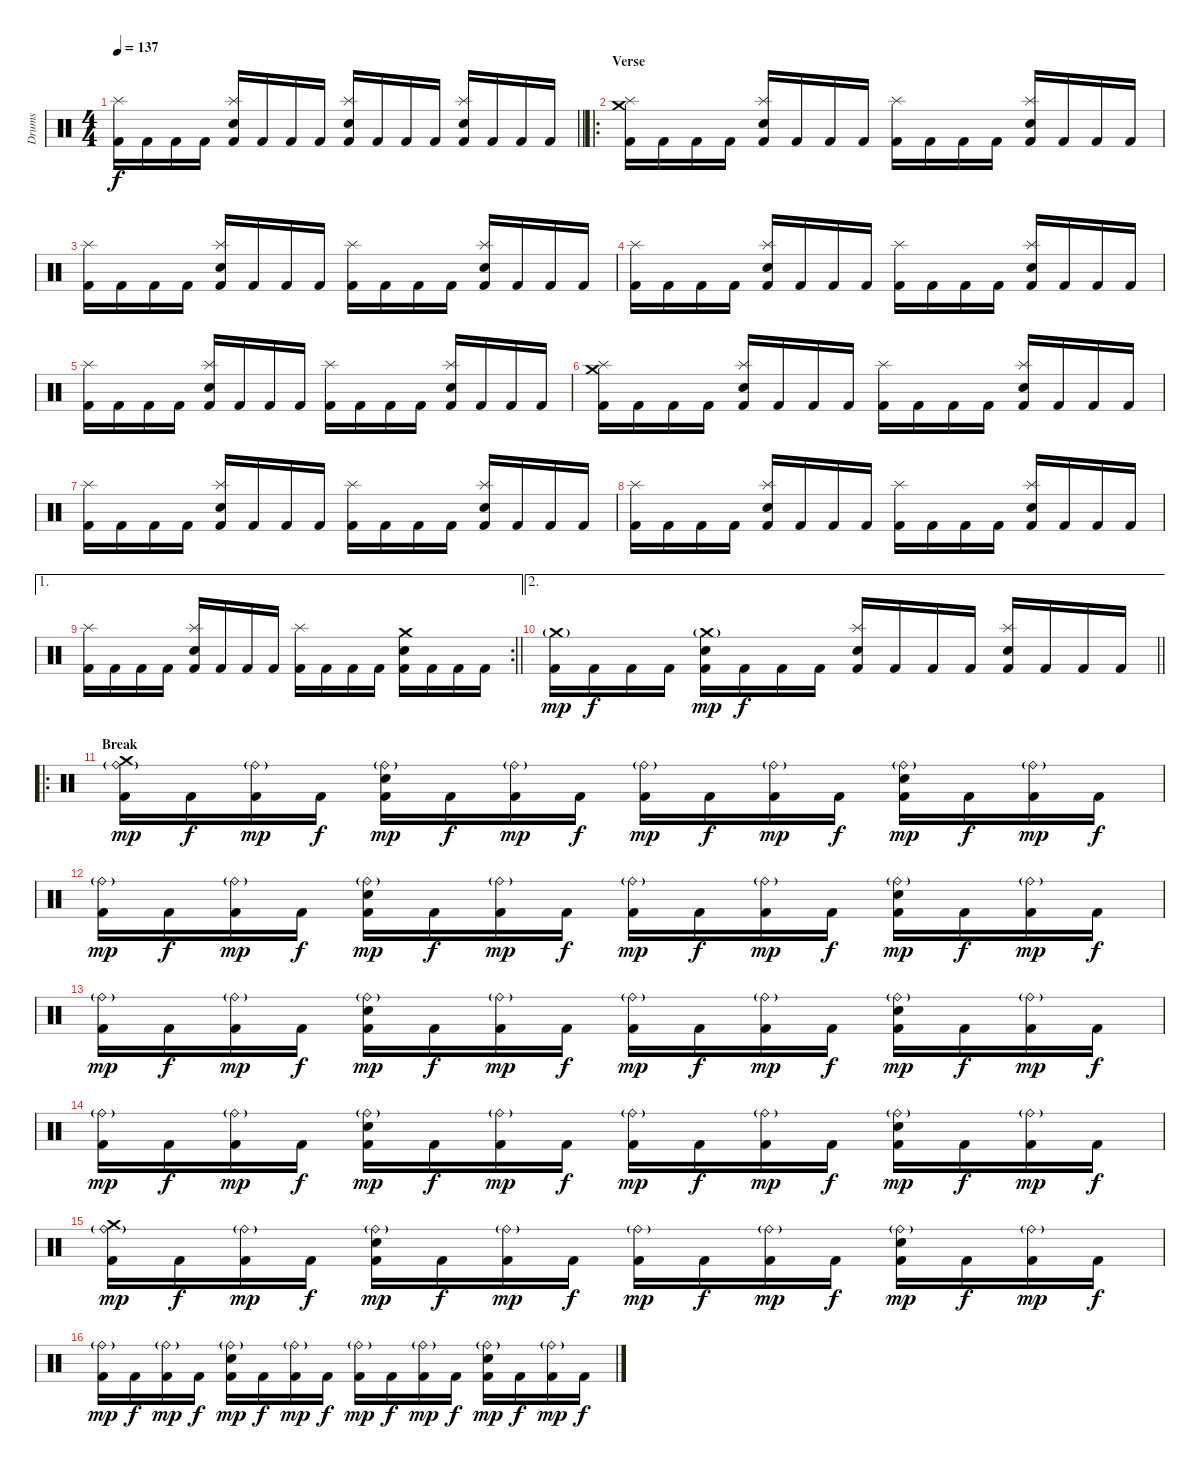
\track ("Drums" "Drums") {instrument percussion}
\staff {score}
\articulation defaults
\ts (4 4)
\tempo 137
\clef neutral
\barLineRight lightlight
\ks c
("Kick (hit) 2" "Splash (hit)").16{dy f} "Kick (hit) 2".16 "Kick (hit) 2".16 "Kick (hit) 2".16 ("Kick (hit) 2" "Snare (hit) 2" "Splash (hit)").16 "Kick (hit) 2".16 "Kick (hit) 2".16 "Kick (hit) 2".16 ("Kick (hit) 2" "Snare (hit) 2" "Splash (hit)").16 "Kick (hit) 2".16 "Kick (hit) 2".16 "Kick (hit) 2".16 ("Kick (hit) 2" "Snare (hit) 2" "Splash (hit)").16 "Kick (hit) 2".16 "Kick (hit) 2".16 "Kick (hit) 2".16 |
\ro
\section ("" "Verse")
("Kick (hit) 2" "Splash (hit)" "Crash medium (hit)").16 "Kick (hit) 2".16 "Kick (hit) 2".16 "Kick (hit) 2".16 ("Kick (hit) 2" "Snare (hit) 2" "Splash (hit)").16 "Kick (hit) 2".16 "Kick (hit) 2".16 "Kick (hit) 2".16 ("Kick (hit) 2" "Splash (hit)").16 "Kick (hit) 2".16 "Kick (hit) 2".16 "Kick (hit) 2".16 ("Kick (hit) 2" "Snare (hit) 2" "Splash (hit)").16 "Kick (hit) 2".16 "Kick (hit) 2".16 "Kick (hit) 2".16 |
("Kick (hit) 2" "Splash (hit)").16 "Kick (hit) 2".16 "Kick (hit) 2".16 "Kick (hit) 2".16 ("Kick (hit) 2" "Snare (hit) 2" "Splash (hit)").16 "Kick (hit) 2".16 "Kick (hit) 2".16 "Kick (hit) 2".16 ("Kick (hit) 2" "Splash (hit)").16 "Kick (hit) 2".16 "Kick (hit) 2".16 "Kick (hit) 2".16 ("Kick (hit) 2" "Snare (hit) 2" "Splash (hit)").16 "Kick (hit) 2".16 "Kick (hit) 2".16 "Kick (hit) 2".16 |
("Kick (hit) 2" "Splash (hit)").16 "Kick (hit) 2".16 "Kick (hit) 2".16 "Kick (hit) 2".16 ("Kick (hit) 2" "Snare (hit) 2" "Splash (hit)").16 "Kick (hit) 2".16 "Kick (hit) 2".16 "Kick (hit) 2".16 ("Kick (hit) 2" "Splash (hit)").16 "Kick (hit) 2".16 "Kick (hit) 2".16 "Kick (hit) 2".16 ("Kick (hit) 2" "Snare (hit) 2" "Splash (hit)").16 "Kick (hit) 2".16 "Kick (hit) 2".16 "Kick (hit) 2".16 |
("Kick (hit) 2" "Splash (hit)").16 "Kick (hit) 2".16 "Kick (hit) 2".16 "Kick (hit) 2".16 ("Kick (hit) 2" "Snare (hit) 2" "Splash (hit)").16 "Kick (hit) 2".16 "Kick (hit) 2".16 "Kick (hit) 2".16 ("Kick (hit) 2" "Splash (hit)").16 "Kick (hit) 2".16 "Kick (hit) 2".16 "Kick (hit) 2".16 ("Kick (hit) 2" "Snare (hit) 2" "Splash (hit)").16 "Kick (hit) 2".16 "Kick (hit) 2".16 "Kick (hit) 2".16 |
("Kick (hit) 2" "Splash (hit)" "Crash medium (hit)").16 "Kick (hit) 2".16 "Kick (hit) 2".16 "Kick (hit) 2".16 ("Kick (hit) 2" "Snare (hit) 2" "Splash (hit)").16 "Kick (hit) 2".16 "Kick (hit) 2".16 "Kick (hit) 2".16 ("Kick (hit) 2" "Splash (hit)").16 "Kick (hit) 2".16 "Kick (hit) 2".16 "Kick (hit) 2".16 ("Kick (hit) 2" "Snare (hit) 2" "Splash (hit)").16 "Kick (hit) 2".16 "Kick (hit) 2".16 "Kick (hit) 2".16 |
("Kick (hit) 2" "Splash (hit)").16 "Kick (hit) 2".16 "Kick (hit) 2".16 "Kick (hit) 2".16 ("Kick (hit) 2" "Snare (hit) 2" "Splash (hit)").16 "Kick (hit) 2".16 "Kick (hit) 2".16 "Kick (hit) 2".16 ("Kick (hit) 2" "Splash (hit)").16 "Kick (hit) 2".16 "Kick (hit) 2".16 "Kick (hit) 2".16 ("Kick (hit) 2" "Snare (hit) 2" "Splash (hit)").16 "Kick (hit) 2".16 "Kick (hit) 2".16 "Kick (hit) 2".16 |
("Kick (hit) 2" "Splash (hit)").16 "Kick (hit) 2".16 "Kick (hit) 2".16 "Kick (hit) 2".16 ("Kick (hit) 2" "Snare (hit) 2" "Splash (hit)").16 "Kick (hit) 2".16 "Kick (hit) 2".16 "Kick (hit) 2".16 ("Kick (hit) 2" "Splash (hit)").16 "Kick (hit) 2".16 "Kick (hit) 2".16 "Kick (hit) 2".16 ("Kick (hit) 2" "Snare (hit) 2" "Splash (hit)").16 "Kick (hit) 2".16 "Kick (hit) 2".16 "Kick (hit) 2".16 |
\ae 1
\rc 2
\barLineRight lightlight
("Kick (hit) 2" "Splash (hit)").16 "Kick (hit) 2".16 "Kick (hit) 2".16 "Kick (hit) 2".16 ("Kick (hit) 2" "Snare (hit) 2" "Splash (hit)").16 "Kick (hit) 2".16 "Kick (hit) 2".16 "Kick (hit) 2".16 ("Kick (hit) 2" "Splash (hit)").16 "Kick (hit) 2".16 "Kick (hit) 2".16 "Kick (hit) 2".16 ("Kick (hit) 2" "Snare (hit) 2" "Crash medium (hit)").16 "Kick (hit) 2".16 "Kick (hit) 2".16 "Kick (hit) 2".16 |
\ae 2
\barLineRight lightlight
("Kick (hit) 2" "Crash medium (hit)"{g}).16{dy mp} "Kick (hit) 2".16{dy f} "Kick (hit) 2".16 "Kick (hit) 2".16 ("Kick (hit) 2" "Snare (hit) 2" "Crash medium (hit)"{g}).16{dy mp} "Kick (hit) 2".16{dy f} "Kick (hit) 2".16 "Kick (hit) 2".16 ("Kick (hit) 2" "Snare (hit) 2" "Splash (hit)").16 "Kick (hit) 2".16 "Kick (hit) 2".16 "Kick (hit) 2".16 ("Kick (hit) 2" "Snare (hit) 2" "Splash (hit)").16 "Kick (hit) 2".16 "Kick (hit) 2".16 "Kick (hit) 2".16 |
\ro
\section ("" "Break")
("Kick (hit) 2" "Ride (bell)"{g} "Crash medium (hit)").16{dy mp} "Kick (hit) 2".16{dy f} ("Kick (hit) 2" "Ride (bell)"{g}).16{dy mp} "Kick (hit) 2".16{dy f} ("Kick (hit) 2" "Snare (hit) 2" "Ride (bell)"{g}).16{dy mp} "Kick (hit) 2".16{dy f} ("Kick (hit) 2" "Ride (bell)"{g}).16{dy mp} "Kick (hit) 2".16{dy f} ("Kick (hit) 2" "Ride (bell)"{g}).16{dy mp} "Kick (hit) 2".16{dy f} ("Kick (hit) 2" "Ride (bell)"{g}).16{dy mp} "Kick (hit) 2".16{dy f} ("Kick (hit) 2" "Snare (hit) 2" "Ride (bell)"{g}).16{dy mp} "Kick (hit) 2".16{dy f} ("Kick (hit) 2" "Ride (bell)"{g}).16{dy mp} "Kick (hit) 2".16{dy f} |
("Kick (hit) 2" "Ride (bell)"{g}).16{dy mp} "Kick (hit) 2".16{dy f} ("Kick (hit) 2" "Ride (bell)"{g}).16{dy mp} "Kick (hit) 2".16{dy f} ("Kick (hit) 2" "Snare (hit) 2" "Ride (bell)"{g}).16{dy mp} "Kick (hit) 2".16{dy f} ("Kick (hit) 2" "Ride (bell)"{g}).16{dy mp} "Kick (hit) 2".16{dy f} ("Kick (hit) 2" "Ride (bell)"{g}).16{dy mp} "Kick (hit) 2".16{dy f} ("Kick (hit) 2" "Ride (bell)"{g}).16{dy mp} "Kick (hit) 2".16{dy f} ("Kick (hit) 2" "Snare (hit) 2" "Ride (bell)"{g}).16{dy mp} "Kick (hit) 2".16{dy f} ("Kick (hit) 2" "Ride (bell)"{g}).16{dy mp} "Kick (hit) 2".16{dy f} |
("Kick (hit) 2" "Ride (bell)"{g}).16{dy mp} "Kick (hit) 2".16{dy f} ("Kick (hit) 2" "Ride (bell)"{g}).16{dy mp} "Kick (hit) 2".16{dy f} ("Kick (hit) 2" "Snare (hit) 2" "Ride (bell)"{g}).16{dy mp} "Kick (hit) 2".16{dy f} ("Kick (hit) 2" "Ride (bell)"{g}).16{dy mp} "Kick (hit) 2".16{dy f} ("Kick (hit) 2" "Ride (bell)"{g}).16{dy mp} "Kick (hit) 2".16{dy f} ("Kick (hit) 2" "Ride (bell)"{g}).16{dy mp} "Kick (hit) 2".16{dy f} ("Kick (hit) 2" "Snare (hit) 2" "Ride (bell)"{g}).16{dy mp} "Kick (hit) 2".16{dy f} ("Kick (hit) 2" "Ride (bell)"{g}).16{dy mp} "Kick (hit) 2".16{dy f} |
("Kick (hit) 2" "Ride (bell)"{g}).16{dy mp} "Kick (hit) 2".16{dy f} ("Kick (hit) 2" "Ride (bell)"{g}).16{dy mp} "Kick (hit) 2".16{dy f} ("Kick (hit) 2" "Snare (hit) 2" "Ride (bell)"{g}).16{dy mp} "Kick (hit) 2".16{dy f} ("Kick (hit) 2" "Ride (bell)"{g}).16{dy mp} "Kick (hit) 2".16{dy f} ("Kick (hit) 2" "Ride (bell)"{g}).16{dy mp} "Kick (hit) 2".16{dy f} ("Kick (hit) 2" "Ride (bell)"{g}).16{dy mp} "Kick (hit) 2".16{dy f} ("Kick (hit) 2" "Snare (hit) 2" "Ride (bell)"{g}).16{dy mp} "Kick (hit) 2".16{dy f} ("Kick (hit) 2" "Ride (bell)"{g}).16{dy mp} "Kick (hit) 2".16{dy f} |
("Kick (hit) 2" "Ride (bell)"{g} "Crash medium (hit)").16{dy mp} "Kick (hit) 2".16{dy f} ("Kick (hit) 2" "Ride (bell)"{g}).16{dy mp} "Kick (hit) 2".16{dy f} ("Kick (hit) 2" "Snare (hit) 2" "Ride (bell)"{g}).16{dy mp} "Kick (hit) 2".16{dy f} ("Kick (hit) 2" "Ride (bell)"{g}).16{dy mp} "Kick (hit) 2".16{dy f} ("Kick (hit) 2" "Ride (bell)"{g}).16{dy mp} "Kick (hit) 2".16{dy f} ("Kick (hit) 2" "Ride (bell)"{g}).16{dy mp} "Kick (hit) 2".16{dy f} ("Kick (hit) 2" "Snare (hit) 2" "Ride (bell)"{g}).16{dy mp} "Kick (hit) 2".16{dy f} ("Kick (hit) 2" "Ride (bell)"{g}).16{dy mp} "Kick (hit) 2".16{dy f} |
("Kick (hit) 2" "Ride (bell)"{g}).16{dy mp} "Kick (hit) 2".16{dy f} ("Kick (hit) 2" "Ride (bell)"{g}).16{dy mp} "Kick (hit) 2".16{dy f} ("Kick (hit) 2" "Snare (hit) 2" "Ride (bell)"{g}).16{dy mp} "Kick (hit) 2".16{dy f} ("Kick (hit) 2" "Ride (bell)"{g}).16{dy mp} "Kick (hit) 2".16{dy f} ("Kick (hit) 2" "Ride (bell)"{g}).16{dy mp} "Kick (hit) 2".16{dy f} ("Kick (hit) 2" "Ride (bell)"{g}).16{dy mp} "Kick (hit) 2".16{dy f} ("Kick (hit) 2" "Snare (hit) 2" "Ride (bell)"{g}).16{dy mp} "Kick (hit) 2".16{dy f} ("Kick (hit) 2" "Ride (bell)"{g}).16{dy mp} "Kick (hit) 2".16{dy f}
